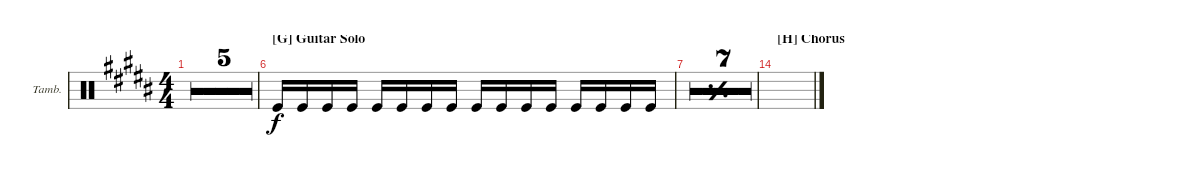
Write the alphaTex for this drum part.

\defaultSystemsLayout 4
\bracketExtendMode groupsimilarinstruments
\firstSystemTrackNameOrientation horizontal
\otherSystemsTrackNameOrientation horizontal
\track ("Tambourine" "Tamb.") {multiBarRest instrument percussion}
\staff {score}
\articulation defaults
\ts (4 4)
\tempo 106
\clef neutral
\ks b
r.1{dy f} |
r.1 |
r.1 |
r.1 |
r.1 |
\section ("G" "Guitar Solo ")
"Kick (hit)".16 "Kick (hit)".16 "Kick (hit)".16 "Kick (hit)".16 "Kick (hit)".16 "Kick (hit)".16 "Kick (hit)".16 "Kick (hit)".16 "Kick (hit)".16 "Kick (hit)".16 "Kick (hit)".16 "Kick (hit)".16 "Kick (hit)".16 "Kick (hit)".16 "Kick (hit)".16 "Kick (hit)".16 |
\simile simple
|
|
|
|
|
|
|
\section ("H" "Chorus")
